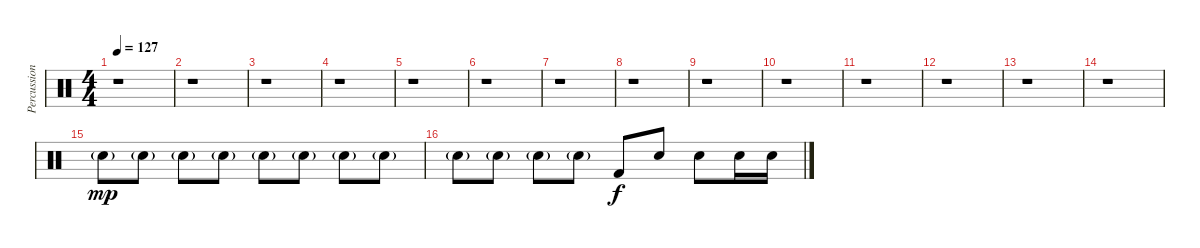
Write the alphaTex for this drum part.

\track ("Percussion" "Percussion") {instrument percussion}
\staff {score}
\articulation defaults
\ts (4 4)
\tempo 127
\clef neutral
\ks c
r.1{dy f} |
r.1 |
r.1 |
r.1 |
r.1 |
r.1 |
r.1 |
r.1 |
r.1 |
r.1 |
r.1 |
r.1 |
r.1 |
r.1 |
"Electric Snare (hit)"{g}.8{dy mp} "Electric Snare (hit)"{g}.8 "Electric Snare (hit)"{g}.8 "Electric Snare (hit)"{g}.8 "Electric Snare (hit)"{g}.8 "Electric Snare (hit)"{g}.8 "Electric Snare (hit)"{g}.8 "Electric Snare (hit)"{g}.8 |
"Electric Snare (hit)"{g}.8 "Electric Snare (hit)"{g}.8 "Electric Snare (hit)"{g}.8 "Electric Snare (hit)"{g}.8 "Kick (hit) 2".8{dy f} "Electric Snare (hit)".8 "Electric Snare (hit)".8 "Electric Snare (hit)".16 "Electric Snare (hit)".16
